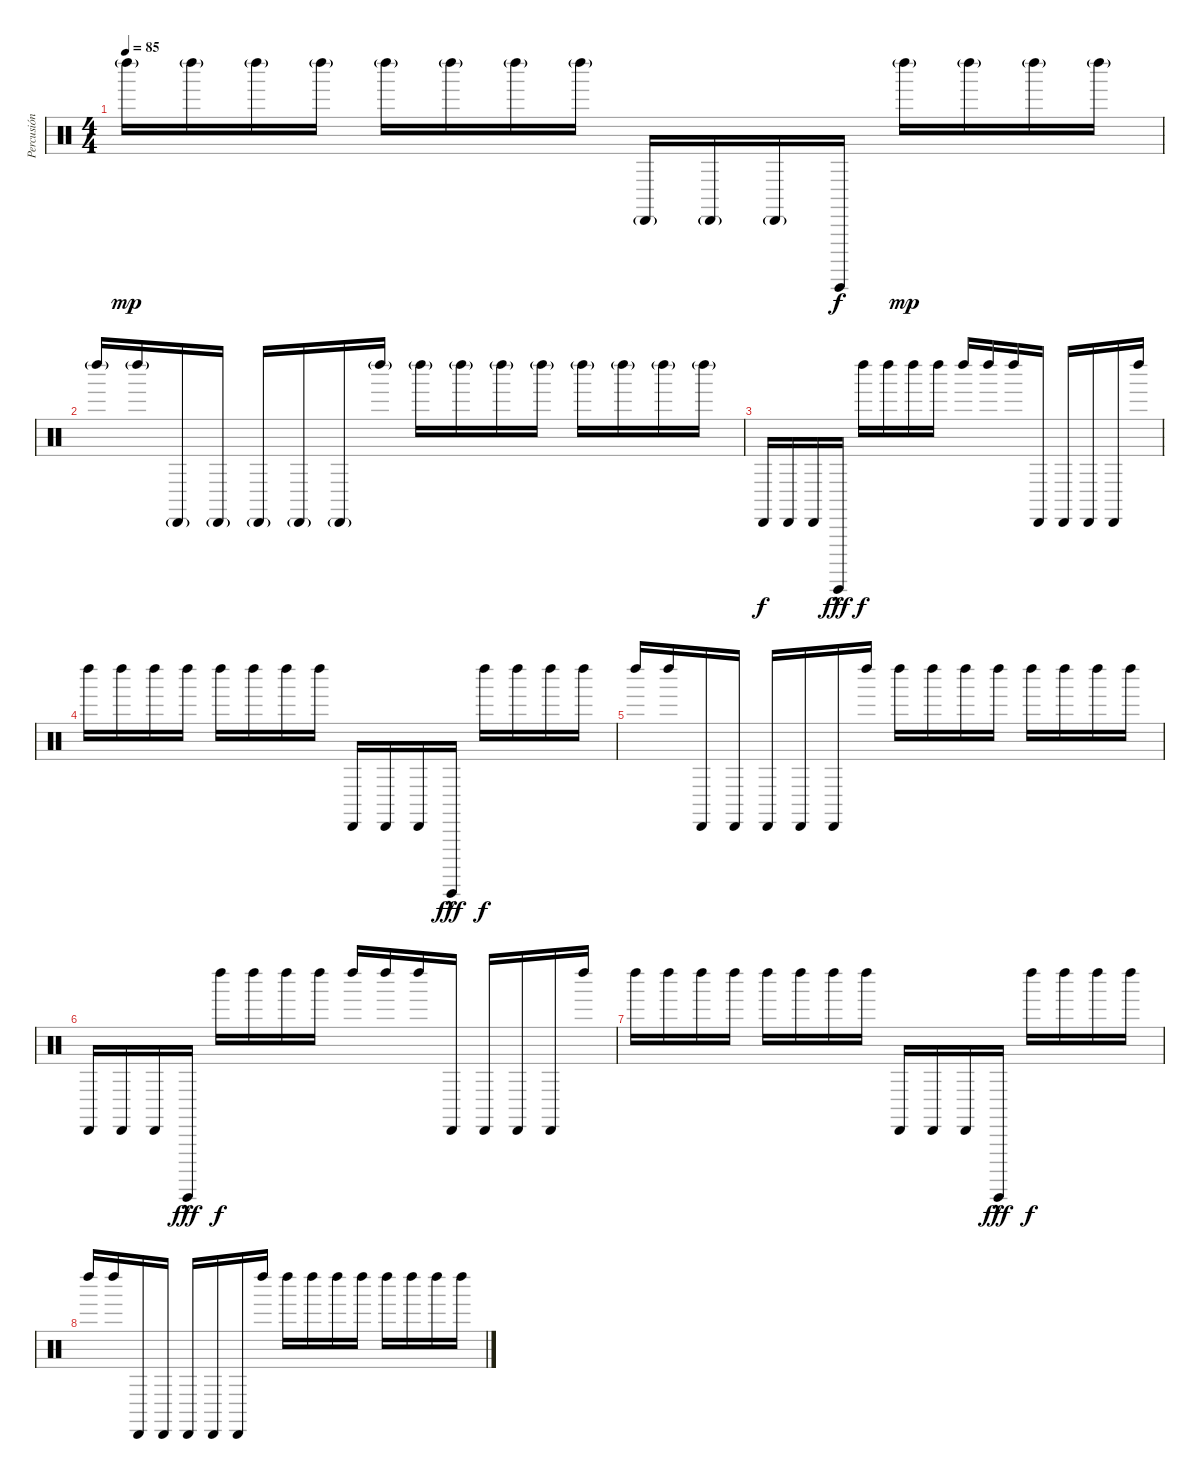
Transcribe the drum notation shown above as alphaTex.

\track ("Percusión" "Percusión") {instrument percussion}
\staff {score}
\articulation defaults
\ts (4 4)
\tempo 85
\clef neutral
\ks c "Left Maraca (hit)"{g}.16{dy mp} "Left Maraca (hit)"{g}.16 "Left Maraca (hit)"{g}.16 "Left Maraca (hit)"{g}.16 "Left Maraca (hit)"{g}.16 "Left Maraca (hit)"{g}.16 "Left Maraca (hit)"{g}.16 "Left Maraca (hit)"{g}.16 "Cabasa (hit)"{g}.16 "Cabasa (hit)"{g}.16 "Cabasa (hit)"{g}.16 "Guiro (hit)".16{dy f} "Left Maraca (hit)"{g}.16{dy mp} "Left Maraca (hit)"{g}.16 "Left Maraca (hit)"{g}.16 "Left Maraca (hit)"{g}.16
|
"Left Maraca (hit)"{g}.16 "Left Maraca (hit)"{g}.16 "Cabasa (hit)"{g}.16 "Cabasa (hit)"{g}.16 "Cabasa (hit)"{g}.16 "Cabasa (hit)"{g}.16 "Cabasa (hit)"{g}.16 "Left Maraca (hit)"{g}.16 "Left Maraca (hit)"{g}.16 "Left Maraca (hit)"{g}.16 "Left Maraca (hit)"{g}.16 "Left Maraca (hit)"{g}.16 "Left Maraca (hit)"{g}.16 "Left Maraca (hit)"{g}.16 "Left Maraca (hit)"{g}.16 "Left Maraca (hit)"{g}.16 |
"Cabasa (hit)".16{dy f} "Cabasa (hit)".16 "Cabasa (hit)".16 "Guiro (hit)"{hac}.16{dy fff} "Left Maraca (hit)".16{dy f} "Left Maraca (hit)".16 "Left Maraca (hit)".16 "Left Maraca (hit)".16 "Left Maraca (hit)".16 "Left Maraca (hit)".16 "Left Maraca (hit)".16 "Cabasa (hit)".16 "Cabasa (hit)".16 "Cabasa (hit)".16 "Cabasa (hit)".16 "Left Maraca (hit)".16 |
"Left Maraca (hit)".16 "Left Maraca (hit)".16 "Left Maraca (hit)".16 "Left Maraca (hit)".16 "Left Maraca (hit)".16 "Left Maraca (hit)".16 "Left Maraca (hit)".16 "Left Maraca (hit)".16 "Cabasa (hit)".16 "Cabasa (hit)".16 "Cabasa (hit)".16 "Guiro (hit)"{hac}.16{dy fff} "Left Maraca (hit)".16{dy f} "Left Maraca (hit)".16 "Left Maraca (hit)".16 "Left Maraca (hit)".16 |
"Left Maraca (hit)".16 "Left Maraca (hit)".16 "Cabasa (hit)".16 "Cabasa (hit)".16 "Cabasa (hit)".16 "Cabasa (hit)".16 "Cabasa (hit)".16 "Left Maraca (hit)".16 "Left Maraca (hit)".16 "Left Maraca (hit)".16 "Left Maraca (hit)".16 "Left Maraca (hit)".16 "Left Maraca (hit)".16 "Left Maraca (hit)".16 "Left Maraca (hit)".16 "Left Maraca (hit)".16 |
"Cabasa (hit)".16 "Cabasa (hit)".16 "Cabasa (hit)".16 "Guiro (hit)"{hac}.16{dy fff} "Left Maraca (hit)".16{dy f} "Left Maraca (hit)".16 "Left Maraca (hit)".16 "Left Maraca (hit)".16 "Left Maraca (hit)".16 "Left Maraca (hit)".16 "Left Maraca (hit)".16 "Cabasa (hit)".16 "Cabasa (hit)".16 "Cabasa (hit)".16 "Cabasa (hit)".16 "Left Maraca (hit)".16 |
"Left Maraca (hit)".16 "Left Maraca (hit)".16 "Left Maraca (hit)".16 "Left Maraca (hit)".16 "Left Maraca (hit)".16 "Left Maraca (hit)".16 "Left Maraca (hit)".16 "Left Maraca (hit)".16 "Cabasa (hit)".16 "Cabasa (hit)".16 "Cabasa (hit)".16 "Guiro (hit)"{hac}.16{dy fff} "Left Maraca (hit)".16{dy f} "Left Maraca (hit)".16 "Left Maraca (hit)".16 "Left Maraca (hit)".16 |
"Left Maraca (hit)".16 "Left Maraca (hit)".16 "Cabasa (hit)".16 "Cabasa (hit)".16 "Cabasa (hit)".16 "Cabasa (hit)".16 "Cabasa (hit)".16 "Left Maraca (hit)".16 "Left Maraca (hit)".16 "Left Maraca (hit)".16 "Left Maraca (hit)".16 "Left Maraca (hit)".16 "Left Maraca (hit)".16 "Left Maraca (hit)".16 "Left Maraca (hit)".16 "Left Maraca (hit)".16
